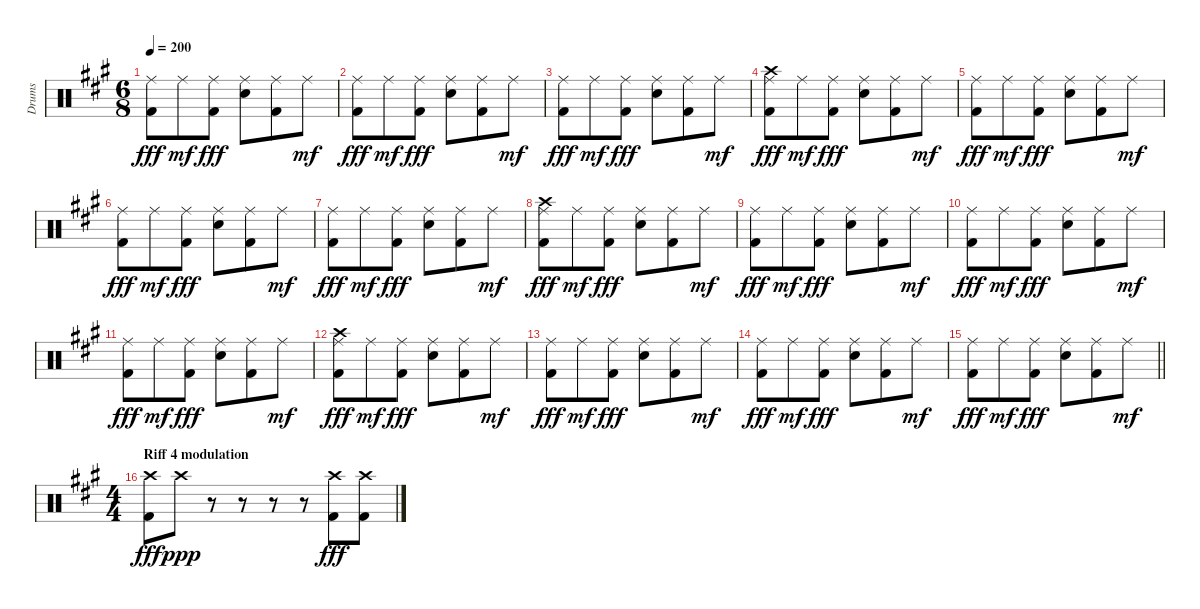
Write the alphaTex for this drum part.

\track ("Drums" "Drums") {instrument percussion}
\staff {score}
\articulation defaults
\ts (6 8)
\tempo 200
\clef neutral
\ks f#minor
("Ride (middle)" "Kick (hit) 2").8{dy fff} "Ride (middle)".8{dy mf} ("Ride (middle)" "Kick (hit) 2").8{dy fff} ("Ride (middle)" "Electric Snare (hit)").8 ("Ride (middle)" "Kick (hit) 2").8 "Ride (middle)".8{dy mf} |
("Ride (middle)" "Kick (hit) 2").8{dy fff} "Ride (middle)".8{dy mf} ("Ride (middle)" "Kick (hit) 2").8{dy fff} ("Ride (middle)" "Electric Snare (hit)").8 ("Ride (middle)" "Kick (hit) 2").8 "Ride (middle)".8{dy mf} |
("Ride (middle)" "Kick (hit) 2").8{dy fff} "Ride (middle)".8{dy mf} ("Ride (middle)" "Kick (hit) 2").8{dy fff} ("Ride (middle)" "Electric Snare (hit)").8 ("Ride (middle)" "Kick (hit) 2").8 "Ride (middle)".8{dy mf} |
("Ride (middle)" "Crash high (hit)" "Kick (hit) 2").8{dy fff} "Ride (middle)".8{dy mf} ("Ride (middle)" "Kick (hit) 2").8{dy fff} ("Ride (middle)" "Electric Snare (hit)").8 ("Ride (middle)" "Kick (hit) 2").8 "Ride (middle)".8{dy mf} |
("Ride (middle)" "Kick (hit) 2").8{dy fff} "Ride (middle)".8{dy mf} ("Ride (middle)" "Kick (hit) 2").8{dy fff} ("Ride (middle)" "Electric Snare (hit)").8 ("Ride (middle)" "Kick (hit) 2").8 "Ride (middle)".8{dy mf} |
("Ride (middle)" "Kick (hit) 2").8{dy fff} "Ride (middle)".8{dy mf} ("Ride (middle)" "Kick (hit) 2").8{dy fff} ("Ride (middle)" "Electric Snare (hit)").8 ("Ride (middle)" "Kick (hit) 2").8 "Ride (middle)".8{dy mf} |
("Ride (middle)" "Kick (hit) 2").8{dy fff} "Ride (middle)".8{dy mf} ("Ride (middle)" "Kick (hit) 2").8{dy fff} ("Ride (middle)" "Electric Snare (hit)").8 ("Ride (middle)" "Kick (hit) 2").8 "Ride (middle)".8{dy mf} |
("Ride (middle)" "Crash high (hit)" "Kick (hit) 2").8{dy fff} "Ride (middle)".8{dy mf} ("Ride (middle)" "Kick (hit) 2").8{dy fff} ("Ride (middle)" "Electric Snare (hit)").8 ("Ride (middle)" "Kick (hit) 2").8 "Ride (middle)".8{dy mf} |
("Ride (middle)" "Kick (hit) 2").8{dy fff} "Ride (middle)".8{dy mf} ("Ride (middle)" "Kick (hit) 2").8{dy fff} ("Ride (middle)" "Electric Snare (hit)").8 ("Ride (middle)" "Kick (hit) 2").8 "Ride (middle)".8{dy mf} |
("Ride (middle)" "Kick (hit) 2").8{dy fff} "Ride (middle)".8{dy mf} ("Ride (middle)" "Kick (hit) 2").8{dy fff} ("Ride (middle)" "Electric Snare (hit)").8 ("Ride (middle)" "Kick (hit) 2").8 "Ride (middle)".8{dy mf} |
("Ride (middle)" "Kick (hit) 2").8{dy fff} "Ride (middle)".8{dy mf} ("Ride (middle)" "Kick (hit) 2").8{dy fff} ("Ride (middle)" "Electric Snare (hit)").8 ("Ride (middle)" "Kick (hit) 2").8 "Ride (middle)".8{dy mf} |
("Ride (middle)" "Crash high (hit)" "Kick (hit) 2").8{dy fff} "Ride (middle)".8{dy mf} ("Ride (middle)" "Kick (hit) 2").8{dy fff} ("Ride (middle)" "Electric Snare (hit)").8 ("Ride (middle)" "Kick (hit) 2").8 "Ride (middle)".8{dy mf} |
("Ride (middle)" "Kick (hit) 2").8{dy fff} "Ride (middle)".8{dy mf} ("Ride (middle)" "Kick (hit) 2").8{dy fff} ("Ride (middle)" "Electric Snare (hit)").8 ("Ride (middle)" "Kick (hit) 2").8 "Ride (middle)".8{dy mf} |
("Ride (middle)" "Kick (hit) 2").8{dy fff} "Ride (middle)".8{dy mf} ("Ride (middle)" "Kick (hit) 2").8{dy fff} ("Ride (middle)" "Electric Snare (hit)").8 ("Ride (middle)" "Kick (hit) 2").8 "Ride (middle)".8{dy mf} |
\barLineRight lightlight
("Ride (middle)" "Kick (hit) 2").8{dy fff} "Ride (middle)".8{dy mf} ("Ride (middle)" "Kick (hit) 2").8{dy fff} ("Ride (middle)" "Electric Snare (hit)").8 ("Ride (middle)" "Kick (hit) 2").8 "Ride (middle)".8{dy mf} |
\ts (4 4)
\section ("" "Riff 4 modulation")
("Crash high (hit)" "Kick (hit) 2").8{dy fff} "Crash high (hit)".8{dy ppp} r.8 r.8 r.8 r.8 ("Crash high (hit)" "Kick (hit) 2").8{dy fff} ("Crash high (hit)" "Kick (hit) 2").8
